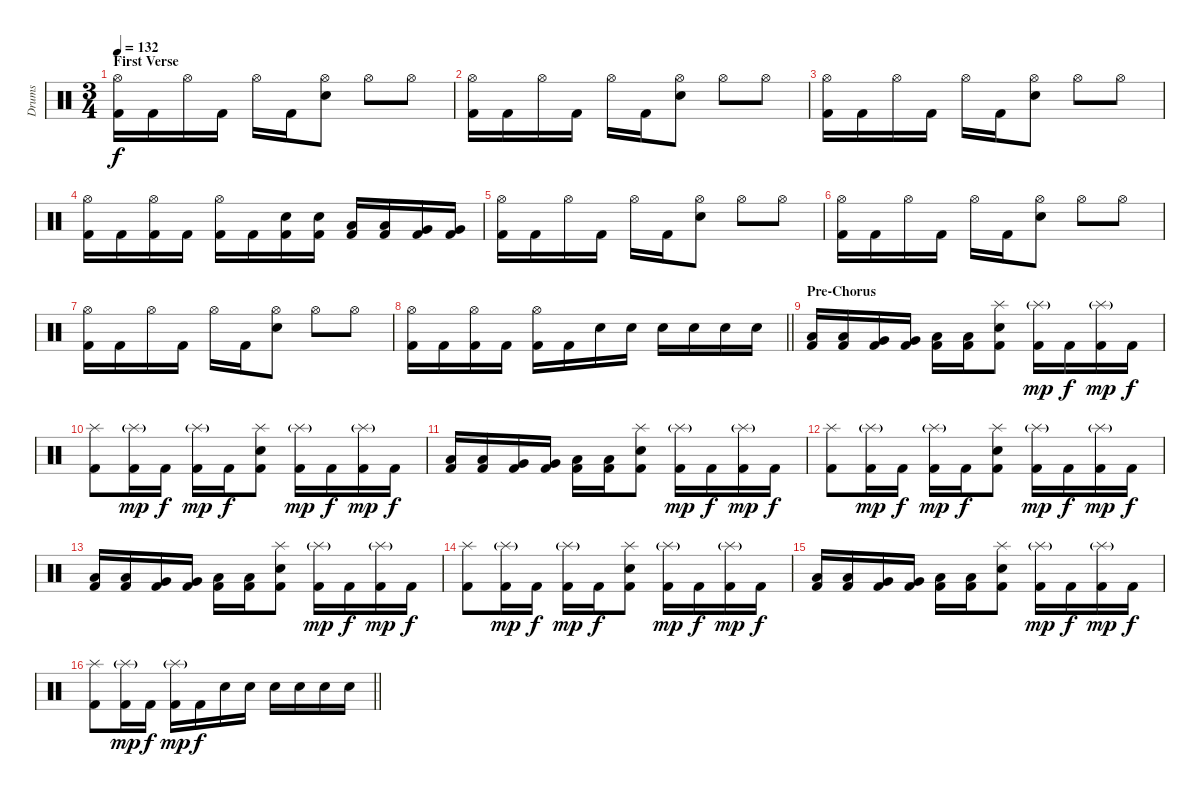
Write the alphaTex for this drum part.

\track ("Drums" "Drums") {instrument percussion}
\staff {score}
\articulation defaults
\ts (3 4)
\section ("" "First Verse")
\tempo 132
\clef neutral
\ks c
("Hi-Hat (open)" "Kick (hit) 2").16{dy f} "Kick (hit) 2".16 "Hi-Hat (open)".16 "Kick (hit) 2".16 "Hi-Hat (open)".16 "Kick (hit) 2".16 ("Hi-Hat (open)" "Snare (hit) 2").8 "Hi-Hat (open)".8 "Hi-Hat (open)".8 |
("Hi-Hat (open)" "Kick (hit) 2").16 "Kick (hit) 2".16 "Hi-Hat (open)".16 "Kick (hit) 2".16 "Hi-Hat (open)".16 "Kick (hit) 2".16 ("Hi-Hat (open)" "Snare (hit) 2").8 "Hi-Hat (open)".8 "Hi-Hat (open)".8 |
("Hi-Hat (open)" "Kick (hit) 2").16 "Kick (hit) 2".16 "Hi-Hat (open)".16 "Kick (hit) 2".16 "Hi-Hat (open)".16 "Kick (hit) 2".16 ("Hi-Hat (open)" "Snare (hit) 2").8 "Hi-Hat (open)".8 "Hi-Hat (open)".8 |
("Hi-Hat (open)" "Kick (hit) 2").16 "Kick (hit) 2".16 ("Hi-Hat (open)" "Kick (hit) 2").16 "Kick (hit) 2".16 ("Hi-Hat (open)" "Kick (hit) 2").16 "Kick (hit) 2".16 ("Snare (hit) 2" "Kick (hit) 2").16 ("Snare (hit) 2" "Kick (hit) 2").16 ("Low Tom (hit)" "Kick (hit) 2").16 ("Low Tom (hit)" "Kick (hit) 2").16 ("Very Low Tom (hit)" "Kick (hit) 2").16 ("Very Low Tom (hit)" "Kick (hit) 2").16 |
("Hi-Hat (open)" "Kick (hit) 2").16 "Kick (hit) 2".16 "Hi-Hat (open)".16 "Kick (hit) 2".16 "Hi-Hat (open)".16 "Kick (hit) 2".16 ("Hi-Hat (open)" "Snare (hit) 2").8 "Hi-Hat (open)".8 "Hi-Hat (open)".8 |
("Hi-Hat (open)" "Kick (hit) 2").16 "Kick (hit) 2".16 "Hi-Hat (open)".16 "Kick (hit) 2".16 "Hi-Hat (open)".16 "Kick (hit) 2".16 ("Hi-Hat (open)" "Snare (hit) 2").8 "Hi-Hat (open)".8 "Hi-Hat (open)".8 |
("Hi-Hat (open)" "Kick (hit) 2").16 "Kick (hit) 2".16 "Hi-Hat (open)".16 "Kick (hit) 2".16 "Hi-Hat (open)".16 "Kick (hit) 2".16 ("Hi-Hat (open)" "Snare (hit) 2").8 "Hi-Hat (open)".8 "Hi-Hat (open)".8 |
\barLineRight lightlight
("Hi-Hat (open)" "Kick (hit) 2").16 "Kick (hit) 2".16 ("Hi-Hat (open)" "Kick (hit) 2").16 "Kick (hit) 2".16 ("Hi-Hat (open)" "Kick (hit) 2").16 "Kick (hit) 2".16 "Snare (hit) 2".16 "Snare (hit) 2".16 "Snare (hit) 2".16 "Snare (hit) 2".16 "Snare (hit) 2".16 "Snare (hit) 2".16 |
\section ("" "Pre-Chorus")
("Low Tom (hit)" "Kick (hit) 2").16 ("Low Tom (hit)" "Kick (hit) 2").16 ("Very Low Tom (hit)" "Kick (hit) 2").16 ("Very Low Tom (hit)" "Kick (hit) 2").16 ("Low Floor Tom (hit)" "Kick (hit) 2").16 ("Low Floor Tom (hit)" "Kick (hit) 2").16 ("Splash (hit)" "Snare (hit) 2" "Kick (hit) 2").8 ("Splash (hit)"{g} "Kick (hit) 2").16{dy mp} "Kick (hit) 2".16{dy f} ("Splash (hit)"{g} "Kick (hit) 2").16{dy mp} "Kick (hit) 2".16{dy f} |
("Splash (hit)" "Kick (hit) 2").8 ("Splash (hit)"{g} "Kick (hit) 2").16{dy mp} "Kick (hit) 2".16{dy f} ("Splash (hit)"{g} "Kick (hit) 2").16{dy mp} "Kick (hit) 2".16{dy f} ("Splash (hit)" "Snare (hit) 2" "Kick (hit) 2").8 ("Splash (hit)"{g} "Kick (hit) 2").16{dy mp} "Kick (hit) 2".16{dy f} ("Splash (hit)"{g} "Kick (hit) 2").16{dy mp} "Kick (hit) 2".16{dy f} |
("Low Tom (hit)" "Kick (hit) 2").16 ("Low Tom (hit)" "Kick (hit) 2").16 ("Very Low Tom (hit)" "Kick (hit) 2").16 ("Very Low Tom (hit)" "Kick (hit) 2").16 ("Low Floor Tom (hit)" "Kick (hit) 2").16 ("Low Floor Tom (hit)" "Kick (hit) 2").16 ("Splash (hit)" "Snare (hit) 2" "Kick (hit) 2").8 ("Splash (hit)"{g} "Kick (hit) 2").16{dy mp} "Kick (hit) 2".16{dy f} ("Splash (hit)"{g} "Kick (hit) 2").16{dy mp} "Kick (hit) 2".16{dy f} |
("Splash (hit)" "Kick (hit) 2").8 ("Splash (hit)"{g} "Kick (hit) 2").16{dy mp} "Kick (hit) 2".16{dy f} ("Splash (hit)"{g} "Kick (hit) 2").16{dy mp} "Kick (hit) 2".16{dy f} ("Splash (hit)" "Snare (hit) 2" "Kick (hit) 2").8 ("Splash (hit)"{g} "Kick (hit) 2").16{dy mp} "Kick (hit) 2".16{dy f} ("Splash (hit)"{g} "Kick (hit) 2").16{dy mp} "Kick (hit) 2".16{dy f} |
("Low Tom (hit)" "Kick (hit) 2").16 ("Low Tom (hit)" "Kick (hit) 2").16 ("Very Low Tom (hit)" "Kick (hit) 2").16 ("Very Low Tom (hit)" "Kick (hit) 2").16 ("Low Floor Tom (hit)" "Kick (hit) 2").16 ("Low Floor Tom (hit)" "Kick (hit) 2").16 ("Splash (hit)" "Snare (hit) 2" "Kick (hit) 2").8 ("Splash (hit)"{g} "Kick (hit) 2").16{dy mp} "Kick (hit) 2".16{dy f} ("Splash (hit)"{g} "Kick (hit) 2").16{dy mp} "Kick (hit) 2".16{dy f} |
("Splash (hit)" "Kick (hit) 2").8 ("Splash (hit)"{g} "Kick (hit) 2").16{dy mp} "Kick (hit) 2".16{dy f} ("Splash (hit)"{g} "Kick (hit) 2").16{dy mp} "Kick (hit) 2".16{dy f} ("Splash (hit)" "Snare (hit) 2" "Kick (hit) 2").8 ("Splash (hit)"{g} "Kick (hit) 2").16{dy mp} "Kick (hit) 2".16{dy f} ("Splash (hit)"{g} "Kick (hit) 2").16{dy mp} "Kick (hit) 2".16{dy f} |
("Low Tom (hit)" "Kick (hit) 2").16 ("Low Tom (hit)" "Kick (hit) 2").16 ("Very Low Tom (hit)" "Kick (hit) 2").16 ("Very Low Tom (hit)" "Kick (hit) 2").16 ("Low Floor Tom (hit)" "Kick (hit) 2").16 ("Low Floor Tom (hit)" "Kick (hit) 2").16 ("Splash (hit)" "Snare (hit) 2" "Kick (hit) 2").8 ("Splash (hit)"{g} "Kick (hit) 2").16{dy mp} "Kick (hit) 2".16{dy f} ("Splash (hit)"{g} "Kick (hit) 2").16{dy mp} "Kick (hit) 2".16{dy f} |
\barLineRight lightlight
("Splash (hit)" "Kick (hit) 2").8 ("Splash (hit)"{g} "Kick (hit) 2").16{dy mp} "Kick (hit) 2".16{dy f} ("Splash (hit)"{g} "Kick (hit) 2").16{dy mp} "Kick (hit) 2".16{dy f} "Snare (hit) 2".16 "Snare (hit) 2".16 "Snare (hit) 2".16 "Snare (hit) 2".16 "Snare (hit) 2".16 "Snare (hit) 2".16
